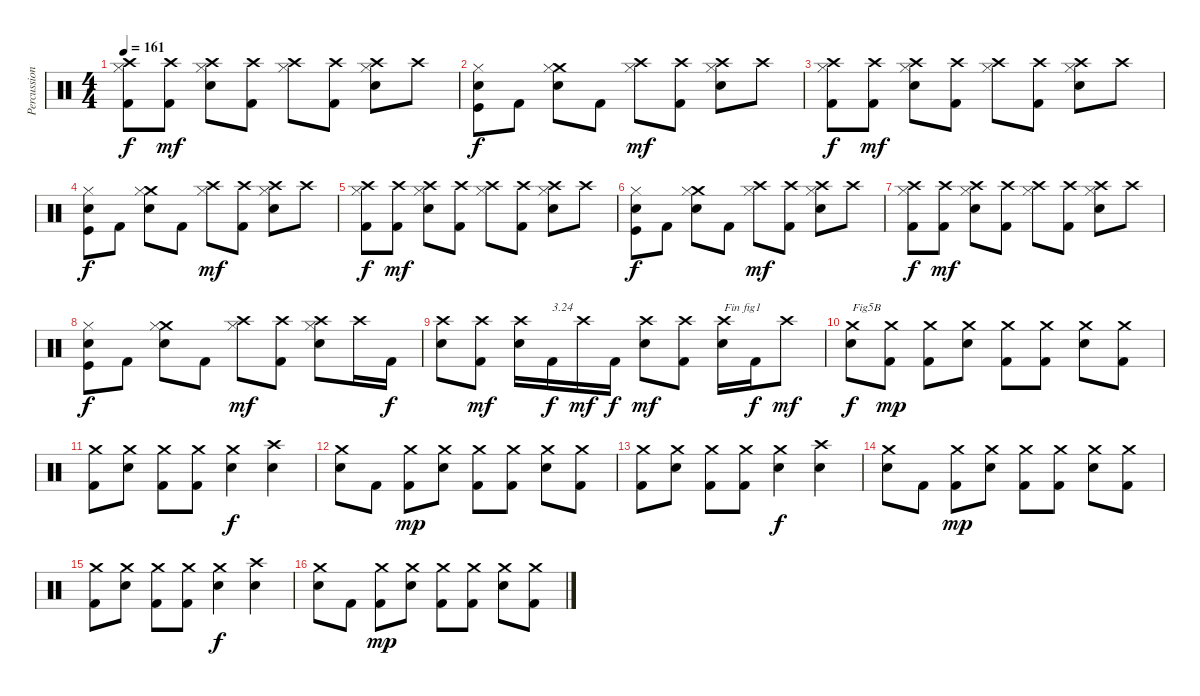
\track ("Percussions" "Percussion") {instrument percussion}
\staff {score}
\articulation defaults
\ts (4 4)
\tempo 161
\clef neutral
\ks c
("Kick (hit) 2" "Crash high (hit)" "Hi-Hat (closed)").8{dy f} ("Kick (hit) 2" "Crash high (hit)").8{dy mf} ("Electric Snare (hit)" "Crash high (hit)" "Hi-Hat (closed)").8 ("Kick (hit) 2" "Crash high (hit)").8 ("Crash high (hit)" "Hi-Hat (closed)").8 ("Kick (hit) 2" "Crash high (hit)").8 ("Electric Snare (hit)" "Crash high (hit)" "Hi-Hat (closed)").8 "Crash high (hit)".8 |
("Electric Snare (hit)" "Kick (hit)" "Hi-Hat (closed)").8{dy f} "Kick (hit) 2".8 ("Electric Snare (hit)" "Crash medium (hit)" "Hi-Hat (closed)").8 "Kick (hit) 2".8 ("Crash high (hit)" "Hi-Hat (closed)").8{dy mf} ("Kick (hit) 2" "Crash high (hit)").8 ("Electric Snare (hit)" "Crash high (hit)" "Hi-Hat (closed)").8 "Crash high (hit)".8 |
("Kick (hit) 2" "Crash high (hit)" "Hi-Hat (closed)").8{dy f} ("Kick (hit) 2" "Crash high (hit)").8{dy mf} ("Electric Snare (hit)" "Crash high (hit)" "Hi-Hat (closed)").8 ("Kick (hit) 2" "Crash high (hit)").8 ("Crash high (hit)" "Hi-Hat (closed)").8 ("Kick (hit) 2" "Crash high (hit)").8 ("Electric Snare (hit)" "Crash high (hit)" "Hi-Hat (closed)").8 "Crash high (hit)".8 |
("Electric Snare (hit)" "Kick (hit)" "Hi-Hat (closed)").8{dy f} "Kick (hit) 2".8 ("Electric Snare (hit)" "Crash medium (hit)" "Hi-Hat (closed)").8 "Kick (hit) 2".8 ("Crash high (hit)" "Hi-Hat (closed)").8{dy mf} ("Kick (hit) 2" "Crash high (hit)").8 ("Electric Snare (hit)" "Crash high (hit)" "Hi-Hat (closed)").8 "Crash high (hit)".8 |
("Kick (hit) 2" "Crash high (hit)" "Hi-Hat (closed)").8{dy f} ("Kick (hit) 2" "Crash high (hit)").8{dy mf} ("Electric Snare (hit)" "Crash high (hit)" "Hi-Hat (closed)").8 ("Kick (hit) 2" "Crash high (hit)").8 ("Crash high (hit)" "Hi-Hat (closed)").8 ("Kick (hit) 2" "Crash high (hit)").8 ("Electric Snare (hit)" "Crash high (hit)" "Hi-Hat (closed)").8 "Crash high (hit)".8 |
("Electric Snare (hit)" "Kick (hit)" "Hi-Hat (closed)").8{dy f} "Kick (hit) 2".8 ("Electric Snare (hit)" "Crash medium (hit)" "Hi-Hat (closed)").8 "Kick (hit) 2".8 ("Crash high (hit)" "Hi-Hat (closed)").8{dy mf} ("Kick (hit) 2" "Crash high (hit)").8 ("Electric Snare (hit)" "Crash high (hit)" "Hi-Hat (closed)").8 "Crash high (hit)".8 |
("Kick (hit) 2" "Crash high (hit)" "Hi-Hat (closed)").8{dy f} ("Kick (hit) 2" "Crash high (hit)").8{dy mf} ("Electric Snare (hit)" "Crash high (hit)" "Hi-Hat (closed)").8 ("Kick (hit) 2" "Crash high (hit)").8 ("Crash high (hit)" "Hi-Hat (closed)").8 ("Kick (hit) 2" "Crash high (hit)").8 ("Electric Snare (hit)" "Crash high (hit)" "Hi-Hat (closed)").8 "Crash high (hit)".8 |
("Electric Snare (hit)" "Kick (hit)" "Hi-Hat (closed)").8{dy f} "Kick (hit) 2".8 ("Electric Snare (hit)" "Crash medium (hit)" "Hi-Hat (closed)").8 "Kick (hit) 2".8 ("Crash high (hit)" "Hi-Hat (closed)").8{dy mf} ("Kick (hit) 2" "Crash high (hit)").8 ("Electric Snare (hit)" "Crash high (hit)" "Hi-Hat (closed)").8 "Crash high (hit)".16 "Kick (hit) 2".16{dy f} |
("Electric Snare (hit)" "Crash high (hit)").8 ("Kick (hit) 2" "Crash high (hit)").8{dy mf} ("Electric Snare (hit)" "Crash high (hit)").16 "Kick (hit) 2".16{txt "3.24" dy f} "Crash high (hit)".16{dy mf} "Kick (hit) 2".16{dy f} ("Electric Snare (hit)" "Crash high (hit)").8{dy mf} ("Kick (hit) 2" "Crash high (hit)").8 ("Electric Snare (hit)" "Crash high (hit)").16{txt "Fin fig1"} "Kick (hit) 2".16{dy f} "Crash high (hit)".8{dy mf} |
("Electric Snare (hit)" "Crash medium (hit)").8{txt "Fig5B" dy f} ("Kick (hit) 2" "Crash medium (hit)").8{dy mp} ("Kick (hit) 2" "Crash medium (hit)").8 ("Electric Snare (hit)" "Crash medium (hit)").8 ("Kick (hit) 2" "Crash medium (hit)").8 ("Kick (hit) 2" "Crash medium (hit)").8 ("Electric Snare (hit)" "Crash medium (hit)").8 ("Kick (hit) 2" "Crash medium (hit)").8 |
("Kick (hit) 2" "Crash medium (hit)").8 ("Electric Snare (hit)" "Crash medium (hit)").8 ("Kick (hit) 2" "Crash medium (hit)").8 ("Kick (hit) 2" "Crash medium (hit)").8 ("Electric Snare (hit)" "Crash medium (hit)").4{dy f} ("Electric Snare (hit)" "Crash high (hit)").4 |
("Electric Snare (hit)" "Crash medium (hit)").8 "Kick (hit) 2".8 ("Kick (hit) 2" "Crash medium (hit)").8{dy mp} ("Electric Snare (hit)" "Crash medium (hit)").8 ("Kick (hit) 2" "Crash medium (hit)").8 ("Kick (hit) 2" "Crash medium (hit)").8 ("Electric Snare (hit)" "Crash medium (hit)").8 ("Kick (hit) 2" "Crash medium (hit)").8 |
("Kick (hit) 2" "Crash medium (hit)").8 ("Electric Snare (hit)" "Crash medium (hit)").8 ("Kick (hit) 2" "Crash medium (hit)").8 ("Kick (hit) 2" "Crash medium (hit)").8 ("Electric Snare (hit)" "Crash medium (hit)").4{dy f} ("Electric Snare (hit)" "Crash high (hit)").4 |
("Electric Snare (hit)" "Crash medium (hit)").8 "Kick (hit) 2".8 ("Kick (hit) 2" "Crash medium (hit)").8{dy mp} ("Electric Snare (hit)" "Crash medium (hit)").8 ("Kick (hit) 2" "Crash medium (hit)").8 ("Kick (hit) 2" "Crash medium (hit)").8 ("Electric Snare (hit)" "Crash medium (hit)").8 ("Kick (hit) 2" "Crash medium (hit)").8 |
("Kick (hit) 2" "Crash medium (hit)").8 ("Electric Snare (hit)" "Crash medium (hit)").8 ("Kick (hit) 2" "Crash medium (hit)").8 ("Kick (hit) 2" "Crash medium (hit)").8 ("Electric Snare (hit)" "Crash medium (hit)").4{dy f} ("Electric Snare (hit)" "Crash high (hit)").4 |
("Electric Snare (hit)" "Crash medium (hit)").8 "Kick (hit) 2".8 ("Kick (hit) 2" "Crash medium (hit)").8{dy mp} ("Electric Snare (hit)" "Crash medium (hit)").8 ("Kick (hit) 2" "Crash medium (hit)").8 ("Kick (hit) 2" "Crash medium (hit)").8 ("Electric Snare (hit)" "Crash medium (hit)").8 ("Kick (hit) 2" "Crash medium (hit)").8
